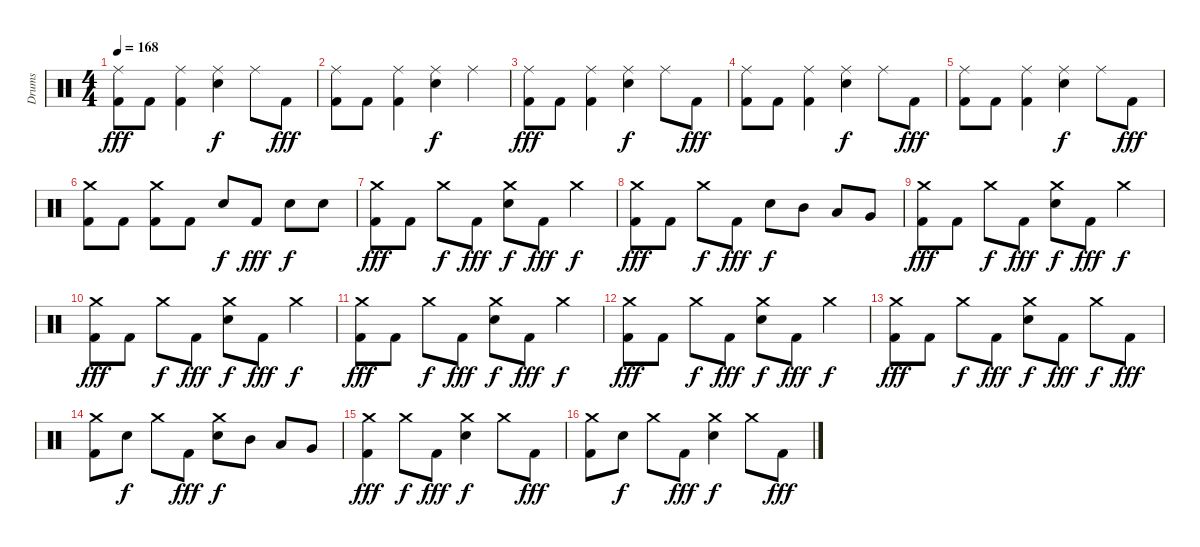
\track ("Drums" "Drums") {instrument percussion}
\staff {score}
\articulation defaults
\ts (4 4)
\tempo 168
\clef neutral
\ks c
("Ride (middle)" "Kick (hit) 2").8{dy fff} "Kick (hit) 2".8 ("Ride (middle)" "Kick (hit) 2").4 ("Ride (middle)" "Electric Snare (hit)").4{dy f} "Ride (middle)".8 "Kick (hit) 2".8{dy fff} |
("Ride (middle)" "Kick (hit) 2").8 "Kick (hit) 2".8 ("Ride (middle)" "Kick (hit) 2").4 ("Ride (middle)" "Electric Snare (hit)").4{dy f} "Ride (middle)".4 |
("Ride (middle)" "Kick (hit) 2").8{dy fff} "Kick (hit) 2".8 ("Ride (middle)" "Kick (hit) 2").4 ("Ride (middle)" "Electric Snare (hit)").4{dy f} "Ride (middle)".8 "Kick (hit) 2".8{dy fff} |
("Ride (middle)" "Kick (hit) 2").8 "Kick (hit) 2".8 ("Ride (middle)" "Kick (hit) 2").4 ("Ride (middle)" "Electric Snare (hit)").4{dy f} "Ride (middle)".8 "Kick (hit) 2".8{dy fff} |
("Ride (middle)" "Kick (hit) 2").8 "Kick (hit) 2".8 ("Ride (middle)" "Kick (hit) 2").4 ("Ride (middle)" "Electric Snare (hit)").4{dy f} "Ride (middle)".8 "Kick (hit) 2".8{dy fff} |
("Crash medium (hit)" "Kick (hit) 2").8 "Kick (hit) 2".8 ("Crash medium (hit)" "Kick (hit) 2").8 "Kick (hit) 2".8 "Electric Snare (hit)".8{dy f} "Kick (hit) 2".8{dy fff} "Electric Snare (hit)".8{dy f} "Electric Snare (hit)".8 |
("Crash medium (hit)" "Kick (hit) 2").8{dy fff} "Kick (hit) 2".8 "Crash medium (hit)".8{dy f} "Kick (hit) 2".8{dy fff} ("Crash medium (hit)" "Electric Snare (hit)").8{dy f} "Kick (hit) 2".8{dy fff} "Crash medium (hit)".4{dy f} |
("Crash medium (hit)" "Kick (hit) 2").8{dy fff} "Kick (hit) 2".8 "Crash medium (hit)".8{dy f} "Kick (hit) 2".8{dy fff} "Electric Snare (hit)".8{dy f} "Mid Tom (hit)".8 "Low Tom (hit)".8 "Very Low Tom (hit)".8 |
("Crash medium (hit)" "Kick (hit) 2").8{dy fff} "Kick (hit) 2".8 "Crash medium (hit)".8{dy f} "Kick (hit) 2".8{dy fff} ("Crash medium (hit)" "Electric Snare (hit)").8{dy f} "Kick (hit) 2".8{dy fff} "Crash medium (hit)".4{dy f} |
("Crash medium (hit)" "Kick (hit) 2").8{dy fff} "Kick (hit) 2".8 "Crash medium (hit)".8{dy f} "Kick (hit) 2".8{dy fff} ("Crash medium (hit)" "Electric Snare (hit)").8{dy f} "Kick (hit) 2".8{dy fff} "Crash medium (hit)".4{dy f} |
("Crash medium (hit)" "Kick (hit) 2").8{dy fff} "Kick (hit) 2".8 "Crash medium (hit)".8{dy f} "Kick (hit) 2".8{dy fff} ("Crash medium (hit)" "Electric Snare (hit)").8{dy f} "Kick (hit) 2".8{dy fff} "Crash medium (hit)".4{dy f} |
("Crash medium (hit)" "Kick (hit) 2").8{dy fff} "Kick (hit) 2".8 "Crash medium (hit)".8{dy f} "Kick (hit) 2".8{dy fff} ("Crash medium (hit)" "Electric Snare (hit)").8{dy f} "Kick (hit) 2".8{dy fff} "Crash medium (hit)".4{dy f} |
("Crash medium (hit)" "Kick (hit) 2").8{dy fff} "Kick (hit) 2".8 "Crash medium (hit)".8{dy f} "Kick (hit) 2".8{dy fff} ("Crash medium (hit)" "Electric Snare (hit)").8{dy f} "Kick (hit) 2".8{dy fff} "Crash medium (hit)".8{dy f} "Kick (hit) 2".8{dy fff} |
("Crash medium (hit)" "Kick (hit) 2").8 "Electric Snare (hit)".8{dy f} "Crash medium (hit)".8 "Kick (hit) 2".8{dy fff} ("Crash medium (hit)" "Electric Snare (hit)").8{dy f} "Mid Tom (hit)".8 "Low Tom (hit)".8 "Very Low Tom (hit)".8 |
("Crash medium (hit)" "Kick (hit) 2").4{dy fff} "Crash medium (hit)".8{dy f} "Kick (hit) 2".8{dy fff} ("Crash medium (hit)" "Electric Snare (hit)").4{dy f} "Crash medium (hit)".8 "Kick (hit) 2".8{dy fff} |
("Crash medium (hit)" "Kick (hit) 2").8 "Electric Snare (hit)".8{dy f} "Crash medium (hit)".8 "Kick (hit) 2".8{dy fff} ("Crash medium (hit)" "Electric Snare (hit)").4{dy f} "Crash medium (hit)".8 "Kick (hit) 2".8{dy fff}
